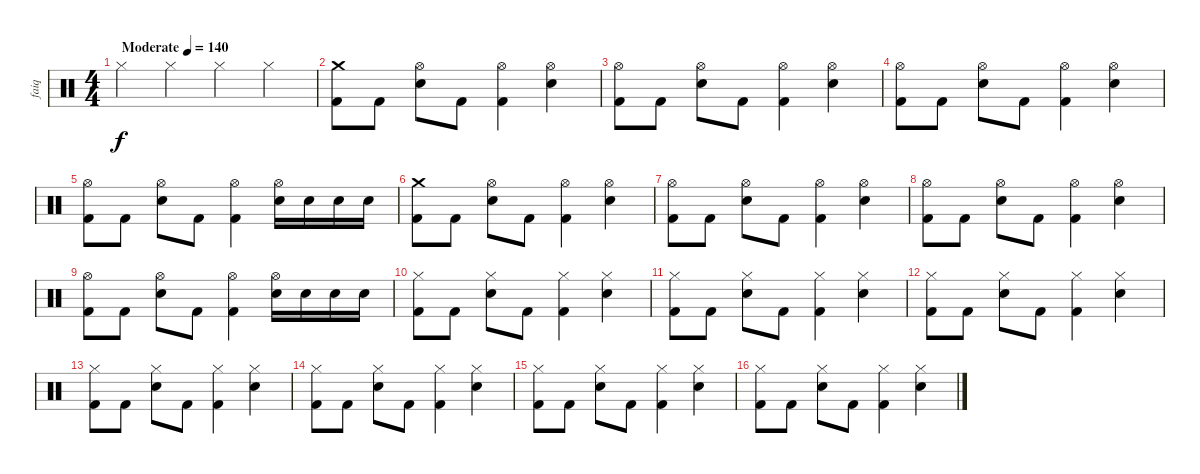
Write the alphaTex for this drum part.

\track ("faiq" "faiq") {instrument percussion}
\staff {score}
\articulation defaults
\ts (4 4)
\tempo (140 "Moderate")
\clef neutral
\ks c "Hi-Hat (closed)".4{dy f} "Hi-Hat (closed)".4 "Hi-Hat (closed)".4 "Hi-Hat (closed)".4
|
("Crash medium (hit)" "Kick (hit) 2").8 "Kick (hit) 2".8 ("Hi-Hat (open)" "Electric Snare (hit)").8 "Kick (hit) 2".8 ("Hi-Hat (open)" "Kick (hit) 2").4 ("Hi-Hat (open)" "Electric Snare (hit)").4 |
("Hi-Hat (open)" "Kick (hit) 2").8 "Kick (hit) 2".8 ("Hi-Hat (open)" "Electric Snare (hit)").8 "Kick (hit) 2".8 ("Hi-Hat (open)" "Kick (hit) 2").4 ("Hi-Hat (open)" "Electric Snare (hit)").4 |
("Hi-Hat (open)" "Kick (hit) 2").8 "Kick (hit) 2".8 ("Hi-Hat (open)" "Electric Snare (hit)").8 "Kick (hit) 2".8 ("Hi-Hat (open)" "Kick (hit) 2").4 ("Hi-Hat (open)" "Electric Snare (hit)").4 |
("Hi-Hat (open)" "Kick (hit) 2").8 "Kick (hit) 2".8 ("Hi-Hat (open)" "Electric Snare (hit)").8 "Kick (hit) 2".8 ("Hi-Hat (open)" "Kick (hit) 2").4 ("Hi-Hat (open)" "Electric Snare (hit)").16 "Electric Snare (hit)".16 "Electric Snare (hit)".16 "Electric Snare (hit)".16 |
("Crash medium (hit)" "Kick (hit) 2").8 "Kick (hit) 2".8 ("Hi-Hat (open)" "Electric Snare (hit)").8 "Kick (hit) 2".8 ("Hi-Hat (open)" "Kick (hit) 2").4 ("Hi-Hat (open)" "Electric Snare (hit)").4 |
("Hi-Hat (open)" "Kick (hit) 2").8 "Kick (hit) 2".8 ("Hi-Hat (open)" "Electric Snare (hit)").8 "Kick (hit) 2".8 ("Hi-Hat (open)" "Kick (hit) 2").4 ("Hi-Hat (open)" "Electric Snare (hit)").4 |
("Hi-Hat (open)" "Kick (hit) 2").8 "Kick (hit) 2".8 ("Hi-Hat (open)" "Electric Snare (hit)").8 "Kick (hit) 2".8 ("Hi-Hat (open)" "Kick (hit) 2").4 ("Hi-Hat (open)" "Electric Snare (hit)").4 |
("Hi-Hat (open)" "Kick (hit) 2").8 "Kick (hit) 2".8 ("Hi-Hat (open)" "Electric Snare (hit)").8 "Kick (hit) 2".8 ("Hi-Hat (open)" "Kick (hit) 2").4 ("Hi-Hat (open)" "Electric Snare (hit)").16 "Electric Snare (hit)".16 "Electric Snare (hit)".16 "Electric Snare (hit)".16 |
("Hi-Hat (closed)" "Kick (hit) 2").8 "Kick (hit) 2".8 ("Hi-Hat (closed)" "Electric Snare (hit)").8 "Kick (hit) 2".8 ("Hi-Hat (closed)" "Kick (hit) 2").4 ("Hi-Hat (closed)" "Electric Snare (hit)").4 |
("Hi-Hat (closed)" "Kick (hit) 2").8 "Kick (hit) 2".8 ("Hi-Hat (closed)" "Electric Snare (hit)").8 "Kick (hit) 2".8 ("Hi-Hat (closed)" "Kick (hit) 2").4 ("Hi-Hat (closed)" "Electric Snare (hit)").4 |
("Hi-Hat (closed)" "Kick (hit) 2").8 "Kick (hit) 2".8 ("Hi-Hat (closed)" "Electric Snare (hit)").8 "Kick (hit) 2".8 ("Hi-Hat (closed)" "Kick (hit) 2").4 ("Hi-Hat (closed)" "Electric Snare (hit)").4 |
("Hi-Hat (closed)" "Kick (hit) 2").8 "Kick (hit) 2".8 ("Hi-Hat (closed)" "Electric Snare (hit)").8 "Kick (hit) 2".8 ("Hi-Hat (closed)" "Kick (hit) 2").4 ("Hi-Hat (closed)" "Electric Snare (hit)").4 |
("Hi-Hat (closed)" "Kick (hit) 2").8 "Kick (hit) 2".8 ("Hi-Hat (closed)" "Electric Snare (hit)").8 "Kick (hit) 2".8 ("Hi-Hat (closed)" "Kick (hit) 2").4 ("Hi-Hat (closed)" "Electric Snare (hit)").4 |
("Hi-Hat (closed)" "Kick (hit) 2").8 "Kick (hit) 2".8 ("Hi-Hat (closed)" "Electric Snare (hit)").8 "Kick (hit) 2".8 ("Hi-Hat (closed)" "Kick (hit) 2").4 ("Hi-Hat (closed)" "Electric Snare (hit)").4 |
("Hi-Hat (closed)" "Kick (hit) 2").8 "Kick (hit) 2".8 ("Hi-Hat (closed)" "Electric Snare (hit)").8 "Kick (hit) 2".8 ("Hi-Hat (closed)" "Kick (hit) 2").4 ("Hi-Hat (closed)" "Electric Snare (hit)").4
